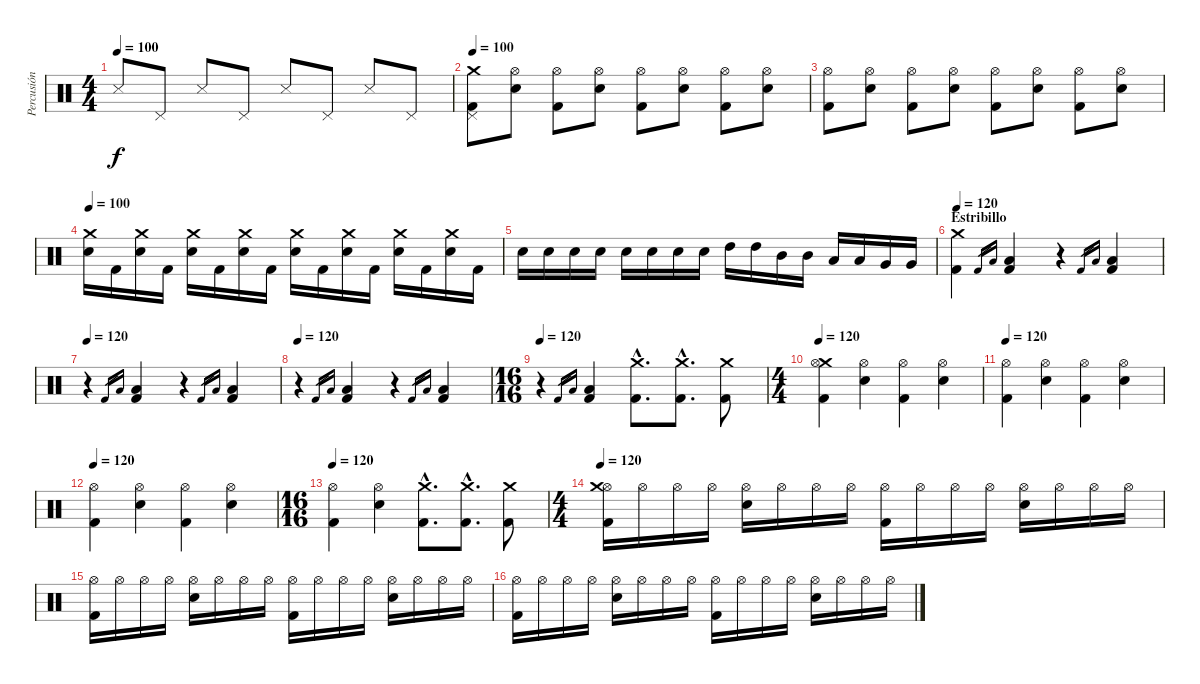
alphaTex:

\track ("Percusión" "Percusión") {instrument percussion}
\staff {score}
\articulation defaults
\ts (4 4)
\tempo 100
\clef neutral
\ks c "Snare (side stick) 3".8{dy f} "Pedal Hi-Hat (hit)".8 "Snare (side stick) 3".8 "Pedal Hi-Hat (hit)".8 "Snare (side stick) 3".8 "Pedal Hi-Hat (hit)".8 "Snare (side stick) 3".8 "Pedal Hi-Hat (hit)".8
|
\tempo 100
("Crash medium (hit)" "Kick (hit) 2" "Pedal Hi-Hat (hit)").8 ("Hi-Hat (open)" "Snare (hit) 2").8 ("Kick (hit) 2" "Hi-Hat (open)").8 ("Hi-Hat (open)" "Snare (hit) 2").8 ("Kick (hit) 2" "Hi-Hat (open)").8 ("Hi-Hat (open)" "Snare (hit) 2").8 ("Kick (hit) 2" "Hi-Hat (open)").8 ("Hi-Hat (open)" "Snare (hit) 2").8 |
("Kick (hit) 2" "Hi-Hat (open)").8 ("Hi-Hat (open)" "Snare (hit) 2").8 ("Kick (hit) 2" "Hi-Hat (open)").8 ("Hi-Hat (open)" "Snare (hit) 2").8 ("Kick (hit) 2" "Hi-Hat (open)").8 ("Hi-Hat (open)" "Snare (hit) 2").8 ("Kick (hit) 2" "Hi-Hat (open)").8 ("Hi-Hat (open)" "Snare (hit) 2").8 |
\tempo 100
("Crash medium (hit)" "Snare (hit) 2").16 "Kick (hit) 2".16 ("Crash medium (hit)" "Snare (hit) 2").16 "Kick (hit) 2".16 ("Crash medium (hit)" "Snare (hit) 2").16 "Kick (hit) 2".16 ("Crash medium (hit)" "Snare (hit) 2").16 "Kick (hit) 2".16 ("Crash medium (hit)" "Snare (hit) 2").16 "Kick (hit) 2".16 ("Crash medium (hit)" "Snare (hit) 2").16 "Kick (hit) 2".16 ("Crash medium (hit)" "Snare (hit) 2").16 "Kick (hit) 2".16 ("Crash medium (hit)" "Snare (hit) 2").16 "Kick (hit) 2".16 |
"Snare (hit) 2".16 "Snare (hit) 2".16 "Snare (hit) 2".16 "Snare (hit) 2".16 "Snare (hit) 2".16 "Snare (hit) 2".16 "Snare (hit) 2".16 "Snare (hit) 2".16 "High Tom (hit)".16 "High Tom (hit)".16 "Mid Tom (hit)".16 "Mid Tom (hit)".16 "Low Tom (hit)".16 "Low Tom (hit)".16 "Very Low Tom (hit)".16 "Very Low Tom (hit)".16 |
\section ("" "Estribillo")
\tempo 120
("Kick (hit) 2" "Crash medium (hit)").4 "Kick (hit) 2".16{gr} "Low Tom (hit)".16{gr} ("Kick (hit) 2" "Low Tom (hit)").4 r.4 "Kick (hit) 2".16{gr} "Low Tom (hit)".16{gr} ("Kick (hit) 2" "Low Tom (hit)").4 |
\tempo 120
r.4 "Kick (hit) 2".16{gr} "Low Tom (hit)".16{gr} ("Kick (hit) 2" "Low Tom (hit)").4 r.4 "Kick (hit) 2".16{gr} "Low Tom (hit)".16{gr} ("Kick (hit) 2" "Low Tom (hit)").4 |
\tempo 120
r.4 "Kick (hit) 2".16{gr} "Low Tom (hit)".16{gr} ("Kick (hit) 2" "Low Tom (hit)").4 r.4 "Kick (hit) 2".16{gr} "Low Tom (hit)".16{gr} ("Kick (hit) 2" "Low Tom (hit)").4 |
\ts (16 16)
\tempo 120
r.4 "Kick (hit) 2".16{gr} "Low Tom (hit)".16{gr} ("Kick (hit) 2" "Low Tom (hit)").4 ("Crash medium (hit)"{hac} "Kick (hit) 2"{hac}).8{d} ("Crash medium (hit)"{hac} "Kick (hit) 2"{hac}).8{d} ("Crash medium (hit)" "Kick (hit) 2").8 |
\ts (4 4)
\tempo 120
("Crash medium (hit)" "Kick (hit) 2" "Hi-Hat (open)").4 ("Snare (hit) 2" "Hi-Hat (open)").4 ("Kick (hit) 2" "Hi-Hat (open)").4 ("Snare (hit) 2" "Hi-Hat (open)").4 |
\tempo 120
("Kick (hit) 2" "Hi-Hat (open)").4 ("Snare (hit) 2" "Hi-Hat (open)").4 ("Kick (hit) 2" "Hi-Hat (open)").4 ("Snare (hit) 2" "Hi-Hat (open)").4 |
\tempo 120
("Kick (hit) 2" "Hi-Hat (open)").4 ("Snare (hit) 2" "Hi-Hat (open)").4 ("Kick (hit) 2" "Hi-Hat (open)").4 ("Snare (hit) 2" "Hi-Hat (open)").4 |
\ts (16 16)
\tempo 120
("Hi-Hat (open)" "Kick (hit) 2").4 ("Hi-Hat (open)" "Snare (hit) 2").4 ("Crash medium (hit)"{hac} "Kick (hit) 2"{hac}).8{d} ("Crash medium (hit)"{hac} "Kick (hit) 2"{hac}).8{d} ("Crash medium (hit)" "Kick (hit) 2").8 |
\ts (4 4)
\tempo 120
("Hi-Hat (open)" "Kick (hit) 2" "Crash medium (hit)").16 "Hi-Hat (open)".16 "Hi-Hat (open)".16 "Hi-Hat (open)".16 ("Hi-Hat (open)" "Snare (hit) 2").16 "Hi-Hat (open)".16 "Hi-Hat (open)".16 "Hi-Hat (open)".16 ("Hi-Hat (open)" "Kick (hit) 2").16 "Hi-Hat (open)".16 "Hi-Hat (open)".16 "Hi-Hat (open)".16 ("Hi-Hat (open)" "Snare (hit) 2").16 "Hi-Hat (open)".16 "Hi-Hat (open)".16 "Hi-Hat (open)".16 |
("Hi-Hat (open)" "Kick (hit) 2").16 "Hi-Hat (open)".16 "Hi-Hat (open)".16 "Hi-Hat (open)".16 ("Hi-Hat (open)" "Snare (hit) 2").16 "Hi-Hat (open)".16 "Hi-Hat (open)".16 "Hi-Hat (open)".16 ("Hi-Hat (open)" "Kick (hit) 2").16 "Hi-Hat (open)".16 "Hi-Hat (open)".16 "Hi-Hat (open)".16 ("Hi-Hat (open)" "Snare (hit) 2").16 "Hi-Hat (open)".16 "Hi-Hat (open)".16 "Hi-Hat (open)".16 |
("Hi-Hat (open)" "Kick (hit) 2").16 "Hi-Hat (open)".16 "Hi-Hat (open)".16 "Hi-Hat (open)".16 ("Hi-Hat (open)" "Snare (hit) 2").16 "Hi-Hat (open)".16 "Hi-Hat (open)".16 "Hi-Hat (open)".16 ("Hi-Hat (open)" "Kick (hit) 2").16 "Hi-Hat (open)".16 "Hi-Hat (open)".16 "Hi-Hat (open)".16 ("Hi-Hat (open)" "Snare (hit) 2").16 "Hi-Hat (open)".16 "Hi-Hat (open)".16 "Hi-Hat (open)".16
